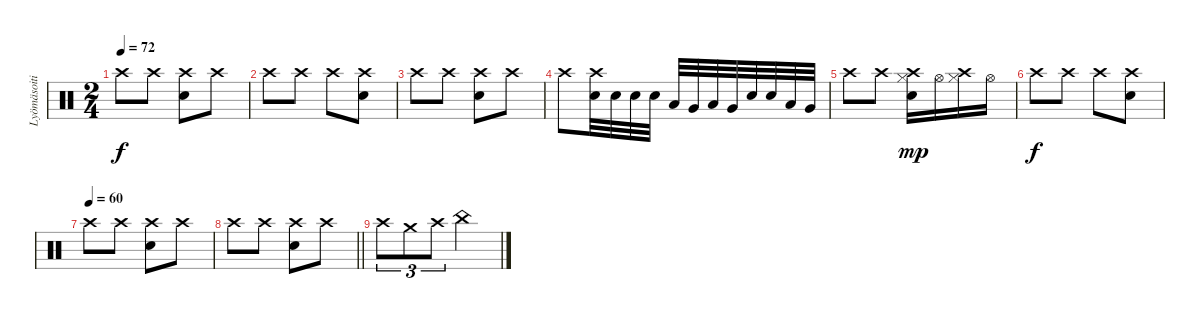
\track ("Lyömäsoitin" "Lyömäsoiti") {instrument percussion}
\staff {score}
\articulation defaults
\ts (2 4)
\tempo 72
\clef neutral
\ks c "Crash high (hit)".8{dy f} "Crash high (hit)".8
("Crash high (hit)" "Snare (hit) 2").8 "Crash high (hit)".8 |
"Crash high (hit)".8 "Crash high (hit)".8 "Crash high (hit)".8 ("Crash high (hit)" "Snare (hit) 2").8 |
"Crash high (hit)".8 "Crash high (hit)".8 ("Crash high (hit)" "Snare (hit) 2").8 "Crash high (hit)".8 |
"Crash high (hit)".8 ("Crash high (hit)" "Snare (hit) 2").32 "Snare (hit) 2".32 "Snare (hit) 2".32 "Snare (hit) 2".32 "Low Tom (hit)".32 "Very Low Tom (hit)".32 "Low Tom (hit)".32 "Very Low Tom (hit)".32 "Snare (hit) 2".32 "Snare (hit) 2".32 "Low Tom (hit)".32 "Very Low Tom (hit)".32 |
"Crash high (hit)".8 "Crash high (hit)".8 ("Crash high (hit)" "Hi-Hat (closed)" "Snare (hit) 2").16{dy mp} "Hi-Hat (open)".16 ("Crash high (hit)" "Hi-Hat (closed)").16 "Hi-Hat (open)".16 |
"Crash high (hit)".8{dy f} "Crash high (hit)".8 "Crash high (hit)".8 ("Crash high (hit)" "Snare (hit) 2").8 |
\tempo (60)
"Crash high (hit)".8 "Crash high (hit)".8 ("Crash high (hit)" "Snare (hit) 2").8 "Crash high (hit)".8 |
\barLineRight lightlight "Crash high (hit)".8 "Crash high (hit)".8
("Crash high (hit)" "Snare (hit) 2").8 "Crash high (hit)".8 |
"Crash high (hit)".8{tu (3 2)} "Crash medium (hit)".8{tu (3 2)} "Crash high (hit)".8{tu (3 2)} "China (hit)".4
